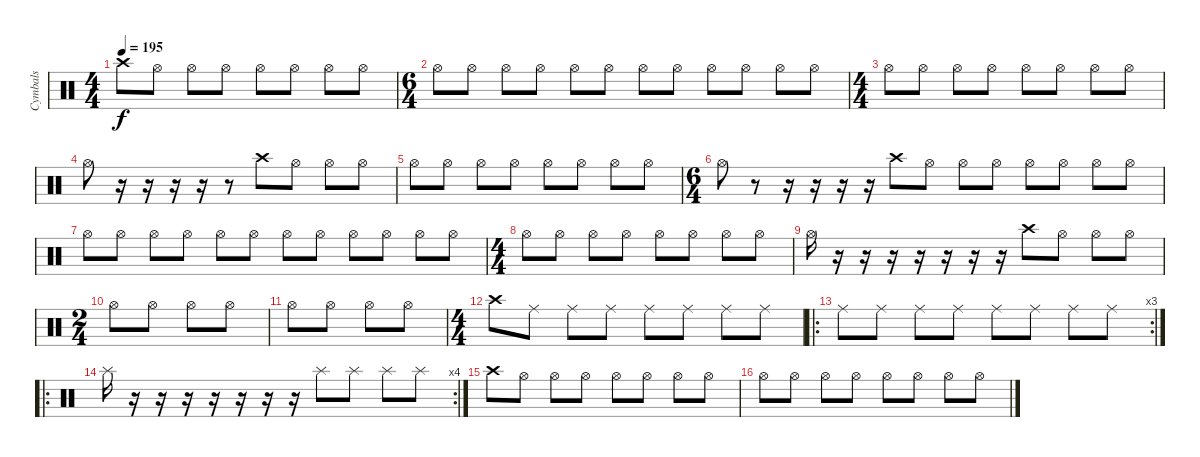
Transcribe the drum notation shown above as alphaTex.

\track ("Cymbals" "Cymbals") {instrument percussion}
\staff {score}
\articulation defaults
\ts (4 4)
\tempo 195
\clef neutral
\ks c "Crash high (hit)".8{dy f} "Hi-Hat (open)".8 "Hi-Hat (open)".8 "Hi-Hat (open)".8 "Hi-Hat (open)".8 "Hi-Hat (open)".8 "Hi-Hat (open)".8 "Hi-Hat (open)".8
|
\ts (6 4)
"Hi-Hat (open)".8 "Hi-Hat (open)".8 "Hi-Hat (open)".8 "Hi-Hat (open)".8 "Hi-Hat (open)".8 "Hi-Hat (open)".8 "Hi-Hat (open)".8 "Hi-Hat (open)".8 "Hi-Hat (open)".8 "Hi-Hat (open)".8 "Hi-Hat (open)".8 "Hi-Hat (open)".8 |
\ts (4 4)
"Hi-Hat (open)".8 "Hi-Hat (open)".8 "Hi-Hat (open)".8 "Hi-Hat (open)".8 "Hi-Hat (open)".8 "Hi-Hat (open)".8 "Hi-Hat (open)".8 "Hi-Hat (open)".8 |
"Hi-Hat (open)".8 r.16 r.16 r.16 r.16 r.8 "Crash high (hit)".8 "Hi-Hat (open)".8 "Hi-Hat (open)".8 "Hi-Hat (open)".8 |
"Hi-Hat (open)".8 "Hi-Hat (open)".8 "Hi-Hat (open)".8 "Hi-Hat (open)".8 "Hi-Hat (open)".8 "Hi-Hat (open)".8 "Hi-Hat (open)".8 "Hi-Hat (open)".8 |
\ts (6 4)
"Hi-Hat (open)".8 r.8 r.16 r.16 r.16 r.16 "Crash high (hit)".8 "Hi-Hat (open)".8 "Hi-Hat (open)".8 "Hi-Hat (open)".8 "Hi-Hat (open)".8 "Hi-Hat (open)".8 "Hi-Hat (open)".8 "Hi-Hat (open)".8 |
"Hi-Hat (open)".8 "Hi-Hat (open)".8 "Hi-Hat (open)".8 "Hi-Hat (open)".8 "Hi-Hat (open)".8 "Hi-Hat (open)".8 "Hi-Hat (open)".8 "Hi-Hat (open)".8 "Hi-Hat (open)".8 "Hi-Hat (open)".8 "Hi-Hat (open)".8 "Hi-Hat (open)".8 |
\ts (4 4)
"Hi-Hat (open)".8 "Hi-Hat (open)".8 "Hi-Hat (open)".8 "Hi-Hat (open)".8 "Hi-Hat (open)".8 "Hi-Hat (open)".8 "Hi-Hat (open)".8 "Hi-Hat (open)".8 |
"Hi-Hat (open)".16 r.16 r.16 r.16 r.16 r.16 r.16 r.16 "Crash high (hit)".8 "Hi-Hat (open)".8 "Hi-Hat (open)".8 "Hi-Hat (open)".8 |
\ts (2 4)
"Hi-Hat (open)".8 "Hi-Hat (open)".8 "Hi-Hat (open)".8 "Hi-Hat (open)".8 |
"Hi-Hat (open)".8 "Hi-Hat (open)".8 "Hi-Hat (open)".8 "Hi-Hat (open)".8 |
\ts (4 4)
"Crash high (hit)".8 "Ride (middle)".8 "Ride (middle)".8 "Ride (middle)".8 "Ride (middle)".8 "Ride (middle)".8 "Ride (middle)".8 "Ride (middle)".8 |
\ro
\rc 3 "Ride (middle)".8 "Ride (middle)".8 "Ride (middle)".8 "Ride (middle)".8 "Ride (middle)".8 "Ride (middle)".8 "Ride (middle)".8 "Ride (middle)".8
|
\ro
\rc 4 "Splash (hit)".16
r.16 r.16 r.16 r.16 r.16 r.16 r.16 "Splash (hit)".8 "Splash (hit)".8 "Splash (hit)".8 "Splash (hit)".8 |
"Crash high (hit)".8 "Hi-Hat (open)".8 "Hi-Hat (open)".8 "Hi-Hat (open)".8 "Hi-Hat (open)".8 "Hi-Hat (open)".8 "Hi-Hat (open)".8 "Hi-Hat (open)".8 |
"Hi-Hat (open)".8 "Hi-Hat (open)".8 "Hi-Hat (open)".8 "Hi-Hat (open)".8 "Hi-Hat (open)".8 "Hi-Hat (open)".8 "Hi-Hat (open)".8 "Hi-Hat (open)".8
